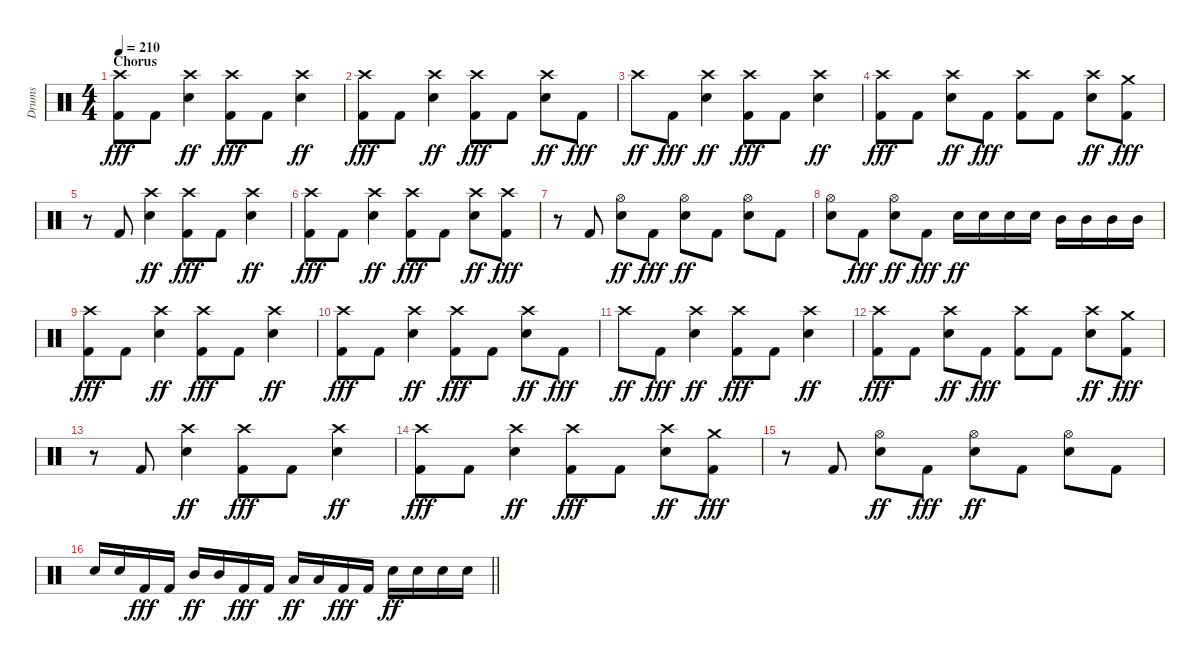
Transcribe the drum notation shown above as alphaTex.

\track ("Drums" "Drums") {instrument percussion}
\staff {score}
\articulation defaults
\ts (4 4)
\section ("" "Chorus")
\tempo 210
\clef neutral
\ks c
("Crash high (hit)" "Kick (hit) 2").8{dy fff} "Kick (hit) 2".8 ("Crash high (hit)" "Snare (hit) 2").4{dy ff} ("Crash high (hit)" "Kick (hit) 2").8{dy fff} "Kick (hit) 2".8 ("Crash high (hit)" "Snare (hit) 2").4{dy ff} |
("Crash high (hit)" "Kick (hit) 2").8{dy fff} "Kick (hit) 2".8 ("Crash high (hit)" "Snare (hit) 2").4{dy ff} ("Crash high (hit)" "Kick (hit) 2").8{dy fff} "Kick (hit) 2".8 ("Crash high (hit)" "Snare (hit) 2").8{dy ff} "Kick (hit) 2".8{dy fff} |
"Crash high (hit)".8{dy ff} "Kick (hit) 2".8{dy fff} ("Crash high (hit)" "Snare (hit) 2").4{dy ff} ("Crash high (hit)" "Kick (hit) 2").8{dy fff} "Kick (hit) 2".8 ("Crash high (hit)" "Snare (hit) 2").4{dy ff} |
("Crash high (hit)" "Kick (hit) 2").8{dy fff} "Kick (hit) 2".8 ("Crash high (hit)" "Snare (hit) 2").8{dy ff} "Kick (hit) 2".8{dy fff} ("Crash high (hit)" "Kick (hit) 2").8 "Kick (hit) 2".8 ("Crash high (hit)" "Snare (hit) 2").8{dy ff} ("Crash medium (hit)" "Kick (hit) 2").8{dy fff} |
r.8 "Kick (hit) 2".8 ("Crash high (hit)" "Snare (hit) 2").4{dy ff} ("Crash high (hit)" "Kick (hit) 2").8{dy fff} "Kick (hit) 2".8 ("Crash high (hit)" "Snare (hit) 2").4{dy ff} |
("Crash high (hit)" "Kick (hit) 2").8{dy fff} "Kick (hit) 2".8 ("Crash high (hit)" "Snare (hit) 2").4{dy ff} ("Crash high (hit)" "Kick (hit) 2").8{dy fff} "Kick (hit) 2".8 ("Crash high (hit)" "Snare (hit) 2").8{dy ff} ("Crash high (hit)" "Kick (hit) 2").8{dy fff} |
r.8 "Kick (hit) 2".8 ("Hi-Hat (open)" "Snare (hit) 2").8{dy ff} "Kick (hit) 2".8{dy fff} ("Hi-Hat (open)" "Snare (hit) 2").8{dy ff} "Kick (hit) 2".8 ("Hi-Hat (open)" "Snare (hit) 2").8 "Kick (hit) 2".8 |
("Hi-Hat (open)" "Snare (hit) 2").8 "Kick (hit) 2".8{dy fff} ("Hi-Hat (open)" "Snare (hit) 2").8{dy ff} "Kick (hit) 2".8{dy fff} "Snare (hit) 2".16{dy ff} "Snare (hit) 2".16 "Snare (hit) 2".16 "Snare (hit) 2".16 "Mid Tom (hit)".16 "Mid Tom (hit)".16 "Mid Tom (hit)".16 "Mid Tom (hit)".16 |
("Crash high (hit)" "Kick (hit) 2").8{dy fff} "Kick (hit) 2".8 ("Crash high (hit)" "Snare (hit) 2").4{dy ff} ("Crash high (hit)" "Kick (hit) 2").8{dy fff} "Kick (hit) 2".8 ("Crash high (hit)" "Snare (hit) 2").4{dy ff} |
("Crash high (hit)" "Kick (hit) 2").8{dy fff} "Kick (hit) 2".8 ("Crash high (hit)" "Snare (hit) 2").4{dy ff} ("Crash high (hit)" "Kick (hit) 2").8{dy fff} "Kick (hit) 2".8 ("Crash high (hit)" "Snare (hit) 2").8{dy ff} "Kick (hit) 2".8{dy fff} |
"Crash high (hit)".8{dy ff} "Kick (hit) 2".8{dy fff} ("Crash high (hit)" "Snare (hit) 2").4{dy ff} ("Crash high (hit)" "Kick (hit) 2").8{dy fff} "Kick (hit) 2".8 ("Crash high (hit)" "Snare (hit) 2").4{dy ff} |
("Crash high (hit)" "Kick (hit) 2").8{dy fff} "Kick (hit) 2".8 ("Crash high (hit)" "Snare (hit) 2").8{dy ff} "Kick (hit) 2".8{dy fff} ("Crash high (hit)" "Kick (hit) 2").8 "Kick (hit) 2".8 ("Crash high (hit)" "Snare (hit) 2").8{dy ff} ("Crash medium (hit)" "Kick (hit) 2").8{dy fff} |
r.8 "Kick (hit) 2".8 ("Crash high (hit)" "Snare (hit) 2").4{dy ff} ("Crash high (hit)" "Kick (hit) 2").8{dy fff} "Kick (hit) 2".8 ("Crash high (hit)" "Snare (hit) 2").4{dy ff} |
("Crash high (hit)" "Kick (hit) 2").8{dy fff} "Kick (hit) 2".8 ("Crash high (hit)" "Snare (hit) 2").4{dy ff} ("Crash high (hit)" "Kick (hit) 2").8{dy fff} "Kick (hit) 2".8 ("Crash high (hit)" "Snare (hit) 2").8{dy ff} ("Crash medium (hit)" "Kick (hit) 2").8{dy fff} |
r.8 "Kick (hit) 2".8 ("Hi-Hat (open)" "Snare (hit) 2").8{dy ff} "Kick (hit) 2".8{dy fff} ("Hi-Hat (open)" "Snare (hit) 2").8{dy ff} "Kick (hit) 2".8 ("Hi-Hat (open)" "Snare (hit) 2").8 "Kick (hit) 2".8 |
\barLineRight lightlight "Snare (hit) 2".16 "Snare (hit) 2".16 "Kick (hit) 2".16{dy fff} "Kick (hit) 2".16 "Mid Tom (hit)".16{dy ff} "Mid Tom (hit)".16 "Kick (hit) 2".16{dy fff} "Kick (hit) 2".16 "Low Tom (hit)".16{dy ff} "Low Tom (hit)".16 "Kick (hit) 2".16{dy fff} "Kick (hit) 2".16 "Snare (hit) 2".16{dy ff} "Snare (hit) 2".16 "Snare (hit) 2".16 "Snare (hit) 2".16
